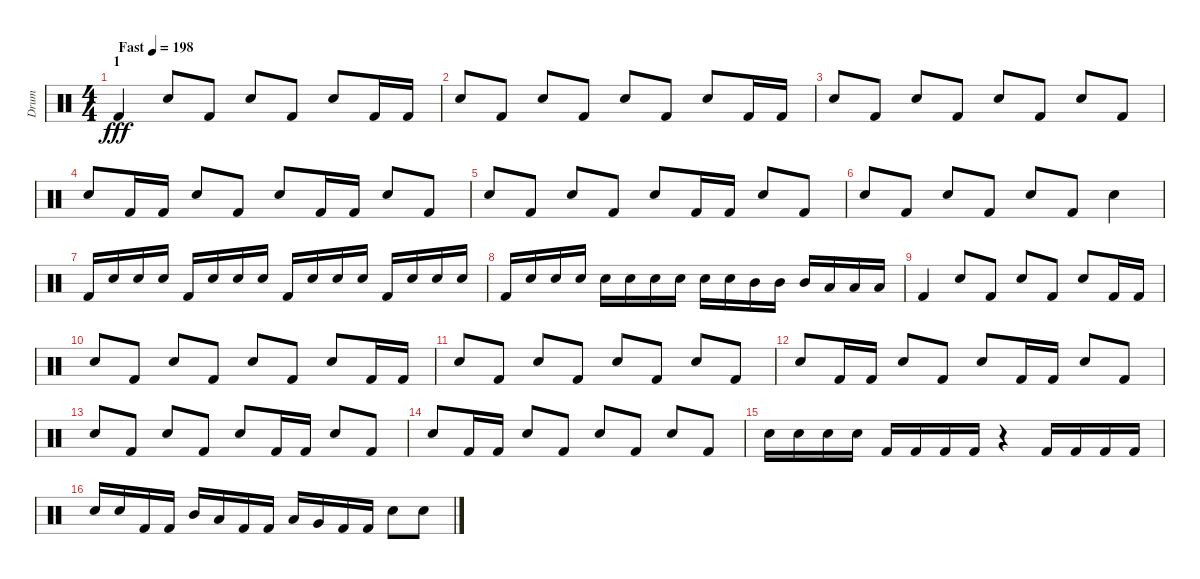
\track ("Drum" "Drum") {instrument percussion}
\staff {score}
\articulation defaults
\ts (4 4)
\section ("" "1")
\tempo (198 "Fast")
\clef neutral
\ks c "Kick (hit) 2".4{dy fff} "Electric Snare (hit)".8 "Kick (hit) 2".8 "Electric Snare (hit)".8 "Kick (hit) 2".8 "Electric Snare (hit)".8 "Kick (hit) 2".16 "Kick (hit) 2".16
|
"Electric Snare (hit)".8 "Kick (hit) 2".8 "Electric Snare (hit)".8 "Kick (hit) 2".8 "Electric Snare (hit)".8 "Kick (hit) 2".8 "Electric Snare (hit)".8 "Kick (hit) 2".16 "Kick (hit) 2".16 |
"Electric Snare (hit)".8 "Kick (hit) 2".8 "Electric Snare (hit)".8 "Kick (hit) 2".8 "Electric Snare (hit)".8 "Kick (hit) 2".8 "Electric Snare (hit)".8 "Kick (hit) 2".8 |
"Electric Snare (hit)".8 "Kick (hit) 2".16 "Kick (hit) 2".16 "Electric Snare (hit)".8 "Kick (hit) 2".8 "Electric Snare (hit)".8 "Kick (hit) 2".16 "Kick (hit) 2".16 "Electric Snare (hit)".8 "Kick (hit) 2".8 |
"Electric Snare (hit)".8 "Kick (hit) 2".8 "Electric Snare (hit)".8 "Kick (hit) 2".8 "Electric Snare (hit)".8 "Kick (hit) 2".16 "Kick (hit) 2".16 "Electric Snare (hit)".8 "Kick (hit) 2".8 |
"Electric Snare (hit)".8 "Kick (hit) 2".8 "Electric Snare (hit)".8 "Kick (hit) 2".8 "Electric Snare (hit)".8 "Kick (hit) 2".8 "Electric Snare (hit)".4 |
"Kick (hit) 2".16 "Electric Snare (hit)".16 "Electric Snare (hit)".16 "Electric Snare (hit)".16 "Kick (hit) 2".16 "Electric Snare (hit)".16 "Electric Snare (hit)".16 "Electric Snare (hit)".16 "Kick (hit) 2".16 "Electric Snare (hit)".16 "Electric Snare (hit)".16 "Electric Snare (hit)".16 "Kick (hit) 2".16 "Electric Snare (hit)".16 "Electric Snare (hit)".16 "Electric Snare (hit)".16 |
"Kick (hit) 2".16 "Electric Snare (hit)".16 "Electric Snare (hit)".16 "Electric Snare (hit)".16 "Electric Snare (hit)".16 "Electric Snare (hit)".16 "Electric Snare (hit)".16 "Electric Snare (hit)".16 "Electric Snare (hit)".16 "Electric Snare (hit)".16 "Mid Tom (hit)".16 "Mid Tom (hit)".16 "Mid Tom (hit)".16 "Low Tom (hit)".16 "Low Tom (hit)".16 "Low Tom (hit)".16 |
"Kick (hit) 2".4 "Electric Snare (hit)".8 "Kick (hit) 2".8 "Electric Snare (hit)".8 "Kick (hit) 2".8 "Electric Snare (hit)".8 "Kick (hit) 2".16 "Kick (hit) 2".16 |
"Electric Snare (hit)".8 "Kick (hit) 2".8 "Electric Snare (hit)".8 "Kick (hit) 2".8 "Electric Snare (hit)".8 "Kick (hit) 2".8 "Electric Snare (hit)".8 "Kick (hit) 2".16 "Kick (hit) 2".16 |
"Electric Snare (hit)".8 "Kick (hit) 2".8 "Electric Snare (hit)".8 "Kick (hit) 2".8 "Electric Snare (hit)".8 "Kick (hit) 2".8 "Electric Snare (hit)".8 "Kick (hit) 2".8 |
"Electric Snare (hit)".8 "Kick (hit) 2".16 "Kick (hit) 2".16 "Electric Snare (hit)".8 "Kick (hit) 2".8 "Electric Snare (hit)".8 "Kick (hit) 2".16 "Kick (hit) 2".16 "Electric Snare (hit)".8 "Kick (hit) 2".8 |
"Electric Snare (hit)".8 "Kick (hit) 2".8 "Electric Snare (hit)".8 "Kick (hit) 2".8 "Electric Snare (hit)".8 "Kick (hit) 2".16 "Kick (hit) 2".16 "Electric Snare (hit)".8 "Kick (hit) 2".8 |
"Electric Snare (hit)".8 "Kick (hit) 2".16 "Kick (hit) 2".16 "Electric Snare (hit)".8 "Kick (hit) 2".8 "Electric Snare (hit)".8 "Kick (hit) 2".8 "Electric Snare (hit)".8 "Kick (hit) 2".8 |
"Electric Snare (hit)".16 "Electric Snare (hit)".16 "Electric Snare (hit)".16 "Electric Snare (hit)".16 "Kick (hit) 2".16 "Kick (hit) 2".16 "Kick (hit) 2".16 "Kick (hit) 2".16 r.4 "Kick (hit) 2".16 "Kick (hit) 2".16 "Kick (hit) 2".16 "Kick (hit) 2".16 |
"Electric Snare (hit)".16 "Electric Snare (hit)".16 "Kick (hit) 2".16 "Kick (hit) 2".16 "Mid Tom (hit)".16 "Low Tom (hit)".16 "Kick (hit) 2".16 "Kick (hit) 2".16 "Low Tom (hit)".16 "Very Low Tom (hit)".16 "Kick (hit) 2".16 "Kick (hit) 2".16 "Electric Snare (hit)".8 "Electric Snare (hit)".8
